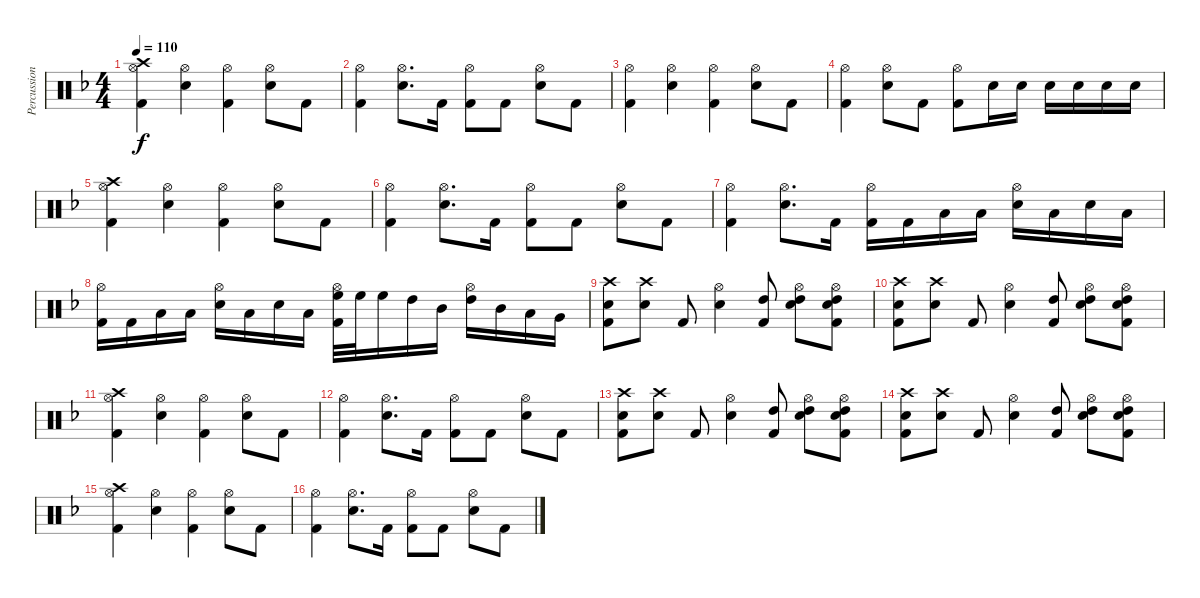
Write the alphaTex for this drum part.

\track ("Percussion" "Percussion") {instrument percussion}
\staff {score}
\articulation defaults
\ts (4 4)
\tempo 110
\clef neutral
\ks dminor
("Crash high (hit)" "Hi-Hat (open)" "Kick (hit) 2").4{dy f} ("Hi-Hat (open)" "Electric Snare (hit)").4 ("Hi-Hat (open)" "Kick (hit) 2").4 ("Hi-Hat (open)" "Electric Snare (hit)").8 "Kick (hit) 2".8 |
("Hi-Hat (open)" "Kick (hit) 2").4 ("Hi-Hat (open)" "Electric Snare (hit)").8{d} "Kick (hit) 2".16 ("Hi-Hat (open)" "Kick (hit) 2").8 "Kick (hit) 2".8 ("Hi-Hat (open)" "Electric Snare (hit)").8 "Kick (hit) 2".8 |
("Hi-Hat (open)" "Kick (hit) 2").4 ("Hi-Hat (open)" "Electric Snare (hit)").4 ("Hi-Hat (open)" "Kick (hit) 2").4 ("Hi-Hat (open)" "Electric Snare (hit)").8 "Kick (hit) 2".8 |
("Hi-Hat (open)" "Kick (hit) 2").4 ("Hi-Hat (open)" "Electric Snare (hit)").8 "Kick (hit) 2".8 ("Hi-Hat (open)" "Kick (hit) 2").8 "Electric Snare (hit)".16 "Electric Snare (hit)".16 "Electric Snare (hit)".16 "Electric Snare (hit)".16 "Electric Snare (hit)".16 "Electric Snare (hit)".16 |
("Crash high (hit)" "Hi-Hat (open)" "Kick (hit) 2").4 ("Hi-Hat (open)" "Electric Snare (hit)").4 ("Hi-Hat (open)" "Kick (hit) 2").4 ("Hi-Hat (open)" "Electric Snare (hit)").8 "Kick (hit) 2".8 |
("Hi-Hat (open)" "Kick (hit) 2").4 ("Hi-Hat (open)" "Electric Snare (hit)").8{d} "Kick (hit) 2".16 ("Hi-Hat (open)" "Kick (hit) 2").8 "Kick (hit) 2".8 ("Hi-Hat (open)" "Electric Snare (hit)").8 "Kick (hit) 2".8 |
("Hi-Hat (open)" "Kick (hit) 2").4 ("Hi-Hat (open)" "Electric Snare (hit)").8{d} "Kick (hit) 2".16 ("Hi-Hat (open)" "Kick (hit) 2").16 "Kick (hit) 2".16 "Low Tom (hit)".16 "Low Tom (hit)".16 ("Hi-Hat (open)" "Electric Snare (hit)").16 "Low Tom (hit)".16 "Electric Snare (hit)".16 "Low Tom (hit)".16 |
("Hi-Hat (open)" "Kick (hit) 2").16 "Kick (hit) 2".16 "Low Tom (hit)".16 "Low Tom (hit)".16 ("Hi-Hat (open)" "Electric Snare (hit)").16 "Low Tom (hit)".16 "Electric Snare (hit)".16 "Low Tom (hit)".16 ("Hi-Hat (open)" "High Floor Tom (hit)" "Kick (hit) 2").32 "High Floor Tom (hit)".32 "High Floor Tom (hit)".16 "High Tom (hit)".16 "Mid Tom (hit)".16 ("Hi-Hat (open)" "High Tom (hit)").16 "Mid Tom (hit)".16 "Low Tom (hit)".16 "Very Low Tom (hit)".16 |
("Crash high (hit)" "Electric Snare (hit)" "Kick (hit) 2").8 ("Crash high (hit)" "Electric Snare (hit)").8 "Kick (hit) 2".8 ("Hi-Hat (open)" "Electric Snare (hit)").4 ("High Tom (hit)" "Kick (hit) 2").8 ("Hi-Hat (open)" "Electric Snare (hit)" "High Tom (hit)").8 ("Hi-Hat (open)" "Electric Snare (hit)" "High Tom (hit)" "Kick (hit) 2").8 |
("Crash high (hit)" "Electric Snare (hit)" "Kick (hit) 2").8 ("Crash high (hit)" "Electric Snare (hit)").8 "Kick (hit) 2".8 ("Hi-Hat (open)" "Electric Snare (hit)").4 ("High Tom (hit)" "Kick (hit) 2").8 ("Hi-Hat (open)" "Electric Snare (hit)" "High Tom (hit)").8 ("Hi-Hat (open)" "Electric Snare (hit)" "High Tom (hit)" "Kick (hit) 2").8 |
("Crash high (hit)" "Hi-Hat (open)" "Kick (hit) 2").4 ("Hi-Hat (open)" "Electric Snare (hit)").4 ("Hi-Hat (open)" "Kick (hit) 2").4 ("Hi-Hat (open)" "Electric Snare (hit)").8 "Kick (hit) 2".8 |
("Hi-Hat (open)" "Kick (hit) 2").4 ("Hi-Hat (open)" "Electric Snare (hit)").8{d} "Kick (hit) 2".16 ("Hi-Hat (open)" "Kick (hit) 2").8 "Kick (hit) 2".8 ("Hi-Hat (open)" "Electric Snare (hit)").8 "Kick (hit) 2".8 |
("Crash high (hit)" "Electric Snare (hit)" "Kick (hit) 2").8 ("Crash high (hit)" "Electric Snare (hit)").8 "Kick (hit) 2".8 ("Hi-Hat (open)" "Electric Snare (hit)").4 ("High Tom (hit)" "Kick (hit) 2").8 ("Hi-Hat (open)" "Electric Snare (hit)" "High Tom (hit)").8 ("Hi-Hat (open)" "Electric Snare (hit)" "High Tom (hit)" "Kick (hit) 2").8 |
("Crash high (hit)" "Electric Snare (hit)" "Kick (hit) 2").8 ("Crash high (hit)" "Electric Snare (hit)").8 "Kick (hit) 2".8 ("Hi-Hat (open)" "Electric Snare (hit)").4 ("High Tom (hit)" "Kick (hit) 2").8 ("Hi-Hat (open)" "Electric Snare (hit)" "High Tom (hit)").8 ("Hi-Hat (open)" "Electric Snare (hit)" "High Tom (hit)" "Kick (hit) 2").8 |
("Crash high (hit)" "Hi-Hat (open)" "Kick (hit) 2").4 ("Hi-Hat (open)" "Electric Snare (hit)").4 ("Hi-Hat (open)" "Kick (hit) 2").4 ("Hi-Hat (open)" "Electric Snare (hit)").8 "Kick (hit) 2".8 |
("Hi-Hat (open)" "Kick (hit) 2").4 ("Hi-Hat (open)" "Electric Snare (hit)").8{d} "Kick (hit) 2".16 ("Hi-Hat (open)" "Kick (hit) 2").8 "Kick (hit) 2".8 ("Hi-Hat (open)" "Electric Snare (hit)").8 "Kick (hit) 2".8
